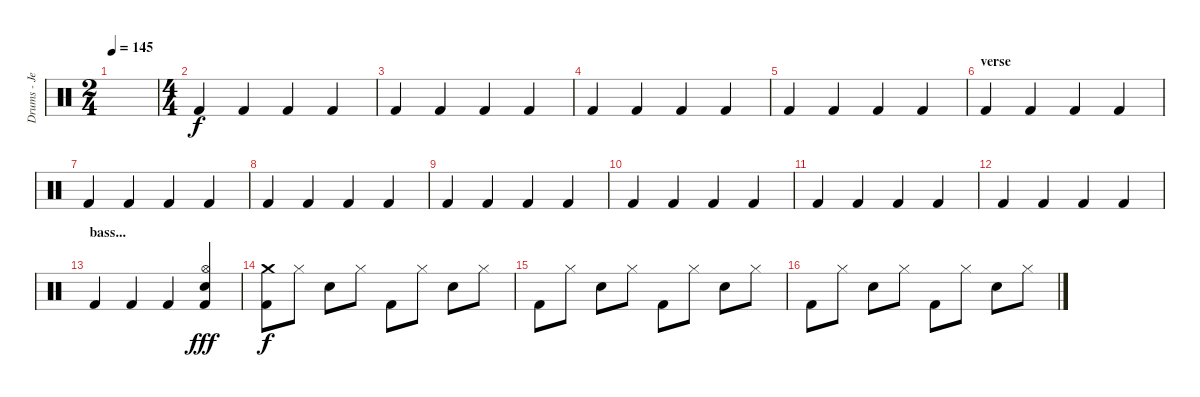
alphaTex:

\track ("Drums - Jeremiah Green" "Drums - Je") {instrument percussion}
\staff {score}
\articulation defaults
\ts (2 4)
\tempo 145
\clef neutral
\ks c
|
\ts (4 4)
"Kick (hit) 2".4 "Kick (hit) 2".4 "Kick (hit) 2".4 "Kick (hit) 2".4 |
"Kick (hit) 2".4 "Kick (hit) 2".4 "Kick (hit) 2".4 "Kick (hit) 2".4 |
"Kick (hit) 2".4 "Kick (hit) 2".4 "Kick (hit) 2".4 "Kick (hit) 2".4 |
"Kick (hit) 2".4 "Kick (hit) 2".4 "Kick (hit) 2".4 "Kick (hit) 2".4 |
\section ("" "verse")
"Kick (hit) 2".4 "Kick (hit) 2".4 "Kick (hit) 2".4 "Kick (hit) 2".4 |
"Kick (hit) 2".4 "Kick (hit) 2".4 "Kick (hit) 2".4 "Kick (hit) 2".4 |
"Kick (hit) 2".4 "Kick (hit) 2".4 "Kick (hit) 2".4 "Kick (hit) 2".4 |
"Kick (hit) 2".4 "Kick (hit) 2".4 "Kick (hit) 2".4 "Kick (hit) 2".4 |
"Kick (hit) 2".4 "Kick (hit) 2".4 "Kick (hit) 2".4 "Kick (hit) 2".4 |
"Kick (hit) 2".4 "Kick (hit) 2".4 "Kick (hit) 2".4 "Kick (hit) 2".4 |
"Kick (hit) 2".4 "Kick (hit) 2".4 "Kick (hit) 2".4 "Kick (hit) 2".4 |
\section ("" "bass...")
"Kick (hit) 2".4 "Kick (hit) 2".4 "Kick (hit) 2".4 ("Hi-Hat (open)" "Electric Snare (hit)" "Kick (hit) 2").4{dy fff} |
("Crash medium (hit)" "Kick (hit) 2").8{dy f} "Hi-Hat (closed)".8 "Electric Snare (hit)".8 "Hi-Hat (closed)".8 "Kick (hit) 2".8 "Hi-Hat (closed)".8 "Electric Snare (hit)".8 "Hi-Hat (closed)".8 |
"Kick (hit) 2".8 "Hi-Hat (closed)".8 "Electric Snare (hit)".8 "Hi-Hat (closed)".8 "Kick (hit) 2".8 "Hi-Hat (closed)".8 "Electric Snare (hit)".8 "Hi-Hat (closed)".8 |
"Kick (hit) 2".8 "Hi-Hat (closed)".8 "Electric Snare (hit)".8 "Hi-Hat (closed)".8 "Kick (hit) 2".8 "Hi-Hat (closed)".8 "Electric Snare (hit)".8 "Hi-Hat (closed)".8
